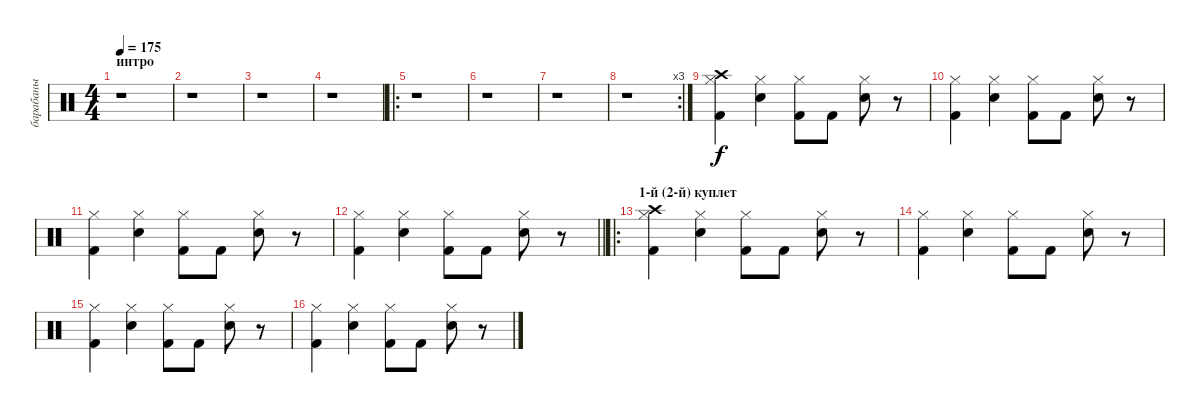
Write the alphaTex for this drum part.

\track ("барабаны" "барабаны") {instrument percussion}
\staff {score}
\articulation defaults
\ts (4 4)
\section ("" "интро")
\tempo 175
\clef neutral
\ks c
r.1{dy f} |
r.1 |
r.1 |
r.1 |
\ro
r.1 |
r.1 |
r.1 |
\rc 3
r.1 |
("Crash high (hit)" "Hi-Hat (closed)" "Kick (hit) 2").4 ("Hi-Hat (closed)" "Snare (hit) 2").4 ("Hi-Hat (closed)" "Kick (hit) 2").8 "Kick (hit) 2".8 ("Hi-Hat (closed)" "Snare (hit) 2").8 r.8 |
("Hi-Hat (closed)" "Kick (hit) 2").4 ("Hi-Hat (closed)" "Snare (hit) 2").4 ("Hi-Hat (closed)" "Kick (hit) 2").8 "Kick (hit) 2".8 ("Hi-Hat (closed)" "Snare (hit) 2").8 r.8 |
("Hi-Hat (closed)" "Kick (hit) 2").4 ("Hi-Hat (closed)" "Snare (hit) 2").4 ("Hi-Hat (closed)" "Kick (hit) 2").8 "Kick (hit) 2".8 ("Hi-Hat (closed)" "Snare (hit) 2").8 r.8 |
\barLineRight lightlight
("Hi-Hat (closed)" "Kick (hit) 2").4 ("Hi-Hat (closed)" "Snare (hit) 2").4 ("Hi-Hat (closed)" "Kick (hit) 2").8 "Kick (hit) 2".8 ("Hi-Hat (closed)" "Snare (hit) 2").8 r.8 |
\ro
\section ("" "1-й (2-й) куплет")
("Crash high (hit)" "Hi-Hat (closed)" "Kick (hit) 2").4 ("Hi-Hat (closed)" "Snare (hit) 2").4 ("Hi-Hat (closed)" "Kick (hit) 2").8 "Kick (hit) 2".8 ("Hi-Hat (closed)" "Snare (hit) 2").8 r.8 |
("Hi-Hat (closed)" "Kick (hit) 2").4 ("Hi-Hat (closed)" "Snare (hit) 2").4 ("Hi-Hat (closed)" "Kick (hit) 2").8 "Kick (hit) 2".8 ("Hi-Hat (closed)" "Snare (hit) 2").8 r.8 |
("Hi-Hat (closed)" "Kick (hit) 2").4 ("Hi-Hat (closed)" "Snare (hit) 2").4 ("Hi-Hat (closed)" "Kick (hit) 2").8 "Kick (hit) 2".8 ("Hi-Hat (closed)" "Snare (hit) 2").8 r.8 |
("Hi-Hat (closed)" "Kick (hit) 2").4 ("Hi-Hat (closed)" "Snare (hit) 2").4 ("Hi-Hat (closed)" "Kick (hit) 2").8 "Kick (hit) 2".8 ("Hi-Hat (closed)" "Snare (hit) 2").8 r.8
